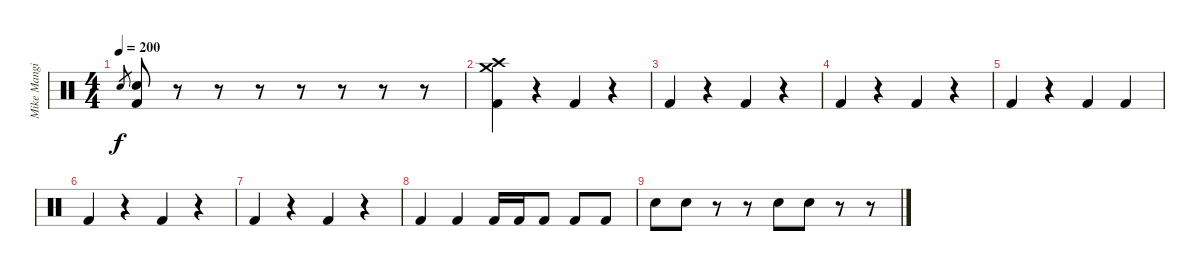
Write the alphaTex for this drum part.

\track ("Mike Mangini" "Mike Mangi") {instrument percussion}
\staff {score}
\articulation defaults
\ts (4 4)
\tempo 200
\clef neutral
\ks c "Electric Snare (hit)".8{gr dy f}
("Electric Snare (hit)" "Kick (hit) 2").8 r.8 r.8 r.8 r.8 r.8 r.8 r.8 |
("Crash medium (hit)" "Crash high (hit)" "Kick (hit) 2").4 r.4 "Kick (hit) 2".4 r.4 |
"Kick (hit) 2".4 r.4 "Kick (hit) 2".4 r.4 |
"Kick (hit) 2".4 r.4 "Kick (hit) 2".4 r.4 |
"Kick (hit) 2".4 r.4 "Kick (hit) 2".4 "Kick (hit) 2".4 |
"Kick (hit) 2".4 r.4 "Kick (hit) 2".4 r.4 |
"Kick (hit) 2".4 r.4 "Kick (hit) 2".4 r.4 |
"Kick (hit) 2".4 "Kick (hit) 2".4 "Kick (hit) 2".16 "Kick (hit) 2".16 "Kick (hit) 2".8 "Kick (hit) 2".8 "Kick (hit) 2".8 |
"Electric Snare (hit)".8 "Electric Snare (hit)".8 r.8 r.8 "Electric Snare (hit)".8 "Electric Snare (hit)".8 r.8 r.8
